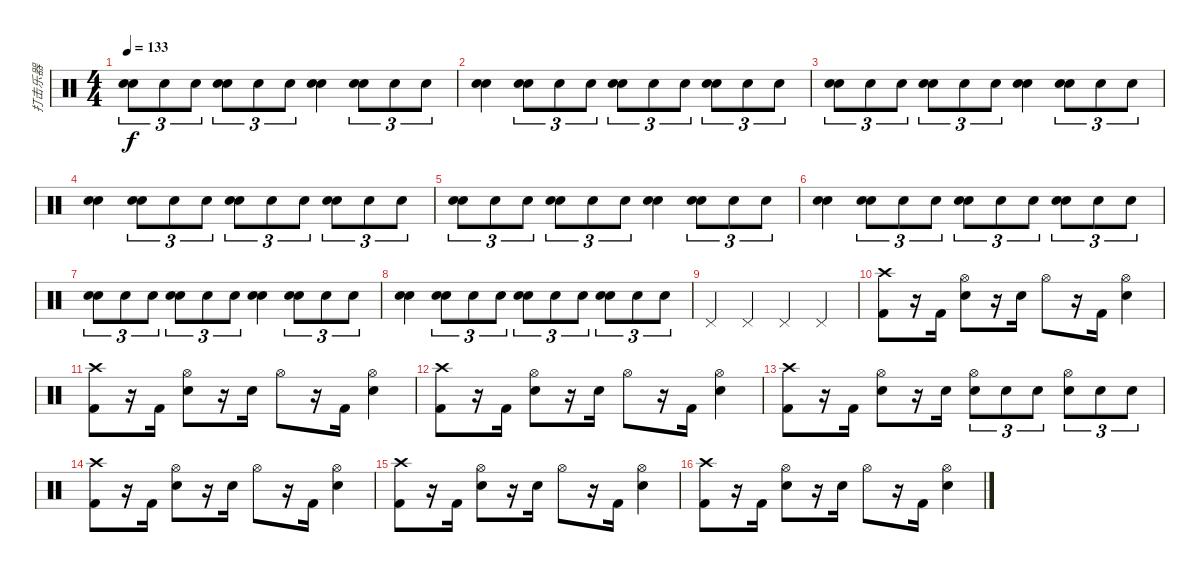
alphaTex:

\track ("打击乐器" "打击乐器") {instrument percussion}
\staff {score}
\articulation defaults
\ts (4 4)
\tempo 133
\clef neutral
\ks c
("Hand Clap (hit)" "Electric Snare (hit)").8{tu (3 2) dy f} "Electric Snare (hit)".8{tu (3 2)} "Electric Snare (hit)".8{tu (3 2)} ("Hand Clap (hit)" "Electric Snare (hit)").8{tu (3 2)} "Electric Snare (hit)".8{tu (3 2)} "Electric Snare (hit)".8{tu (3 2)} ("Hand Clap (hit)" "Electric Snare (hit)").4 ("Hand Clap (hit)" "Electric Snare (hit)").8{tu (3 2)} "Electric Snare (hit)".8{tu (3 2)} "Electric Snare (hit)".8{tu (3 2)} |
("Hand Clap (hit)" "Electric Snare (hit)").4 ("Hand Clap (hit)" "Electric Snare (hit)").8{tu (3 2)} "Electric Snare (hit)".8{tu (3 2)} "Electric Snare (hit)".8{tu (3 2)} ("Hand Clap (hit)" "Electric Snare (hit)").8{tu (3 2)} "Electric Snare (hit)".8{tu (3 2)} "Electric Snare (hit)".8{tu (3 2)} ("Hand Clap (hit)" "Electric Snare (hit)").8{tu (3 2)} "Electric Snare (hit)".8{tu (3 2)} "Electric Snare (hit)".8{tu (3 2)} |
("Hand Clap (hit)" "Electric Snare (hit)").8{tu (3 2)} "Electric Snare (hit)".8{tu (3 2)} "Electric Snare (hit)".8{tu (3 2)} ("Hand Clap (hit)" "Electric Snare (hit)").8{tu (3 2)} "Electric Snare (hit)".8{tu (3 2)} "Electric Snare (hit)".8{tu (3 2)} ("Hand Clap (hit)" "Electric Snare (hit)").4 ("Hand Clap (hit)" "Electric Snare (hit)").8{tu (3 2)} "Electric Snare (hit)".8{tu (3 2)} "Electric Snare (hit)".8{tu (3 2)} |
("Hand Clap (hit)" "Electric Snare (hit)").4 ("Hand Clap (hit)" "Electric Snare (hit)").8{tu (3 2)} "Electric Snare (hit)".8{tu (3 2)} "Electric Snare (hit)".8{tu (3 2)} ("Hand Clap (hit)" "Electric Snare (hit)").8{tu (3 2)} "Electric Snare (hit)".8{tu (3 2)} "Electric Snare (hit)".8{tu (3 2)} ("Hand Clap (hit)" "Electric Snare (hit)").8{tu (3 2)} "Electric Snare (hit)".8{tu (3 2)} "Electric Snare (hit)".8{tu (3 2)} |
("Hand Clap (hit)" "Electric Snare (hit)").8{tu (3 2)} "Electric Snare (hit)".8{tu (3 2)} "Electric Snare (hit)".8{tu (3 2)} ("Hand Clap (hit)" "Electric Snare (hit)").8{tu (3 2)} "Electric Snare (hit)".8{tu (3 2)} "Electric Snare (hit)".8{tu (3 2)} ("Hand Clap (hit)" "Electric Snare (hit)").4 ("Hand Clap (hit)" "Electric Snare (hit)").8{tu (3 2)} "Electric Snare (hit)".8{tu (3 2)} "Electric Snare (hit)".8{tu (3 2)} |
("Hand Clap (hit)" "Electric Snare (hit)").4 ("Hand Clap (hit)" "Electric Snare (hit)").8{tu (3 2)} "Electric Snare (hit)".8{tu (3 2)} "Electric Snare (hit)".8{tu (3 2)} ("Hand Clap (hit)" "Electric Snare (hit)").8{tu (3 2)} "Electric Snare (hit)".8{tu (3 2)} "Electric Snare (hit)".8{tu (3 2)} ("Hand Clap (hit)" "Electric Snare (hit)").8{tu (3 2)} "Electric Snare (hit)".8{tu (3 2)} "Electric Snare (hit)".8{tu (3 2)} |
("Hand Clap (hit)" "Electric Snare (hit)").8{tu (3 2)} "Electric Snare (hit)".8{tu (3 2)} "Electric Snare (hit)".8{tu (3 2)} ("Hand Clap (hit)" "Electric Snare (hit)").8{tu (3 2)} "Electric Snare (hit)".8{tu (3 2)} "Electric Snare (hit)".8{tu (3 2)} ("Hand Clap (hit)" "Electric Snare (hit)").4 ("Hand Clap (hit)" "Electric Snare (hit)").8{tu (3 2)} "Electric Snare (hit)".8{tu (3 2)} "Electric Snare (hit)".8{tu (3 2)} |
("Hand Clap (hit)" "Electric Snare (hit)").4 ("Hand Clap (hit)" "Electric Snare (hit)").8{tu (3 2)} "Electric Snare (hit)".8{tu (3 2)} "Electric Snare (hit)".8{tu (3 2)} ("Hand Clap (hit)" "Electric Snare (hit)").8{tu (3 2)} "Electric Snare (hit)".8{tu (3 2)} "Electric Snare (hit)".8{tu (3 2)} ("Hand Clap (hit)" "Electric Snare (hit)").8{tu (3 2)} "Electric Snare (hit)".8{tu (3 2)} "Electric Snare (hit)".8{tu (3 2)} |
"Pedal Hi-Hat (hit)".4 "Pedal Hi-Hat (hit)".4 "Pedal Hi-Hat (hit)".4 "Pedal Hi-Hat (hit)".4 |
("Crash high (hit)" "Kick (hit) 2").8 r.16 "Kick (hit) 2".16 ("Hi-Hat (open)" "Electric Snare (hit)").8 r.16 "Electric Snare (hit)".16 "Hi-Hat (open)".8 r.16 "Kick (hit) 2".16 ("Hi-Hat (open)" "Electric Snare (hit)").4 |
("Crash high (hit)" "Kick (hit) 2").8 r.16 "Kick (hit) 2".16 ("Hi-Hat (open)" "Electric Snare (hit)").8 r.16 "Electric Snare (hit)".16 "Hi-Hat (open)".8 r.16 "Kick (hit) 2".16 ("Hi-Hat (open)" "Electric Snare (hit)").4 |
("Crash high (hit)" "Kick (hit) 2").8 r.16 "Kick (hit) 2".16 ("Hi-Hat (open)" "Electric Snare (hit)").8 r.16 "Electric Snare (hit)".16 "Hi-Hat (open)".8 r.16 "Kick (hit) 2".16 ("Hi-Hat (open)" "Electric Snare (hit)").4 |
("Crash high (hit)" "Kick (hit) 2").8 r.16 "Kick (hit) 2".16 ("Hi-Hat (open)" "Electric Snare (hit)").8 r.16 "Electric Snare (hit)".16 ("Hi-Hat (open)" "Electric Snare (hit)").8{tu (3 2)} "Electric Snare (hit)".8{tu (3 2)} "Electric Snare (hit)".8{tu (3 2)} ("Hi-Hat (open)" "Electric Snare (hit)").8{tu (3 2)} "Electric Snare (hit)".8{tu (3 2)} "Electric Snare (hit)".8{tu (3 2)} |
("Crash high (hit)" "Kick (hit) 2").8 r.16 "Kick (hit) 2".16 ("Hi-Hat (open)" "Electric Snare (hit)").8 r.16 "Electric Snare (hit)".16 "Hi-Hat (open)".8 r.16 "Kick (hit) 2".16 ("Hi-Hat (open)" "Electric Snare (hit)").4 |
("Crash high (hit)" "Kick (hit) 2").8 r.16 "Kick (hit) 2".16 ("Hi-Hat (open)" "Electric Snare (hit)").8 r.16 "Electric Snare (hit)".16 "Hi-Hat (open)".8 r.16 "Kick (hit) 2".16 ("Hi-Hat (open)" "Electric Snare (hit)").4 |
("Crash high (hit)" "Kick (hit) 2").8 r.16 "Kick (hit) 2".16 ("Hi-Hat (open)" "Electric Snare (hit)").8 r.16 "Electric Snare (hit)".16 "Hi-Hat (open)".8 r.16 "Kick (hit) 2".16 ("Hi-Hat (open)" "Electric Snare (hit)").4
